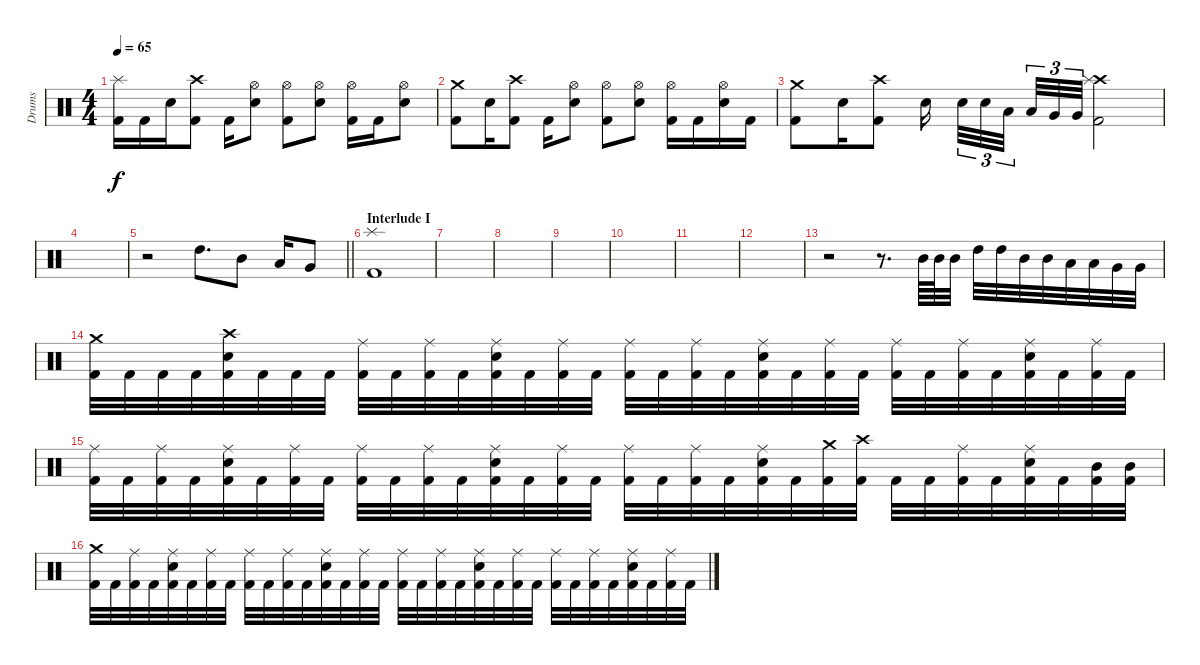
\track ("Drums" "Drums") {instrument percussion}
\staff {score}
\articulation defaults
\ts (4 4)
\tempo 65
\clef neutral
\ks c
("Splash (hit)" "Kick (hit) 2").16{dy f} "Kick (hit) 2".16 "Electric Snare (hit)".16 ("Crash high (hit)" "Kick (hit) 2").8 "Kick (hit) 2".16 ("Hi-Hat (open)" "Electric Snare (hit)").8 ("Hi-Hat (open)" "Kick (hit) 2").8 ("Hi-Hat (open)" "Electric Snare (hit)").8 ("Hi-Hat (open)" "Kick (hit) 2").16 "Kick (hit) 2".16 ("Hi-Hat (open)" "Electric Snare (hit)").8 |
("Crash medium (hit)" "Kick (hit) 2").8 "Electric Snare (hit)".16 ("Crash high (hit)" "Kick (hit) 2").8 "Kick (hit) 2".16 ("Hi-Hat (open)" "Electric Snare (hit)").8 ("Hi-Hat (open)" "Kick (hit) 2").8 ("Hi-Hat (open)" "Electric Snare (hit)").8 ("Hi-Hat (open)" "Kick (hit) 2").16 "Kick (hit) 2".16 ("Hi-Hat (open)" "Electric Snare (hit)").16 "Kick (hit) 2".16 |
("Crash medium (hit)" "Kick (hit) 2").8 "Electric Snare (hit)".16 ("Crash high (hit)" "Kick (hit) 2").8 "Electric Snare (hit)".16 "Electric Snare (hit)".32{tu (3 2)} "Electric Snare (hit)".32{tu (3 2)} "Low Tom (hit)".32{tu (3 2)} "Low Tom (hit)".32{tu (3 2)} "Very Low Tom (hit)".32{tu (3 2)} "Very Low Tom (hit)".32{tu (3 2)} ("Crash high (hit)" "Splash (hit)" "Kick (hit) 2").2 |
|
\barLineRight lightlight
r.2 "High Tom (hit)".8{d} "Mid Tom (hit)".8 "Low Tom (hit)".16 "Very Low Tom (hit)".8 |
\section ("" "Interlude I")
("Splash (hit)" "Kick (hit) 2").1 |
|
|
|
|
|
|
r.2 r.8{d} "Mid Tom (hit)".64 "Mid Tom (hit)".64 "Mid Tom (hit)".32 "High Tom (hit)".32 "High Tom (hit)".32 "Mid Tom (hit)".32 "Mid Tom (hit)".32 "Low Tom (hit)".32 "Low Tom (hit)".32 "Very Low Tom (hit)".32 "Very Low Tom (hit)".32 |
("Crash medium (hit)" "Kick (hit) 2").32 "Kick (hit) 2".32 "Kick (hit) 2".32 "Kick (hit) 2".32 ("Crash high (hit)" "Electric Snare (hit)" "Kick (hit) 2").32 "Kick (hit) 2".32 "Kick (hit) 2".32 "Kick (hit) 2".32 ("Ride (middle)" "Kick (hit) 2").32 "Kick (hit) 2".32 ("Ride (middle)" "Kick (hit) 2").32 "Kick (hit) 2".32 ("Ride (middle)" "Electric Snare (hit)" "Kick (hit) 2").32 "Kick (hit) 2".32 ("Ride (middle)" "Kick (hit) 2").32 "Kick (hit) 2".32 ("Ride (middle)" "Kick (hit) 2").32 "Kick (hit) 2".32 ("Ride (middle)" "Kick (hit) 2").32 "Kick (hit) 2".32 ("Ride (middle)" "Electric Snare (hit)" "Kick (hit) 2").32 "Kick (hit) 2".32 ("Ride (middle)" "Kick (hit) 2").32 "Kick (hit) 2".32 ("Ride (middle)" "Kick (hit) 2").32 "Kick (hit) 2".32 ("Ride (middle)" "Kick (hit) 2").32 "Kick (hit) 2".32 ("Ride (middle)" "Electric Snare (hit)" "Kick (hit) 2").32 "Kick (hit) 2".32 ("Ride (middle)" "Kick (hit) 2").32 "Kick (hit) 2".32 |
("Ride (middle)" "Kick (hit) 2").32 "Kick (hit) 2".32 ("Ride (middle)" "Kick (hit) 2").32 "Kick (hit) 2".32 ("Ride (middle)" "Electric Snare (hit)" "Kick (hit) 2").32 "Kick (hit) 2".32 ("Ride (middle)" "Kick (hit) 2").32 "Kick (hit) 2".32 ("Ride (middle)" "Kick (hit) 2").32 "Kick (hit) 2".32 ("Ride (middle)" "Kick (hit) 2").32 "Kick (hit) 2".32 ("Ride (middle)" "Electric Snare (hit)" "Kick (hit) 2").32 "Kick (hit) 2".32 ("Ride (middle)" "Kick (hit) 2").32 "Kick (hit) 2".32 ("Ride (middle)" "Kick (hit) 2").32 "Kick (hit) 2".32 ("Ride (middle)" "Kick (hit) 2").32 "Kick (hit) 2".32 ("Ride (middle)" "Electric Snare (hit)" "Kick (hit) 2").32 "Kick (hit) 2".32 ("Crash medium (hit)" "Kick (hit) 2").32 ("Crash high (hit)" "Kick (hit) 2").32 "Kick (hit) 2".32 "Kick (hit) 2".32 ("Ride (middle)" "Kick (hit) 2").32 "Kick (hit) 2".32 ("Ride (middle)" "Electric Snare (hit)" "Kick (hit) 2").32 "Kick (hit) 2".32 ("Mid Tom (hit)" "Kick (hit) 2").32 ("Mid Tom (hit)" "Kick (hit) 2").32 |
("Crash medium (hit)" "Kick (hit) 2").32 "Kick (hit) 2".32 ("Ride (middle)" "Kick (hit) 2").32 "Kick (hit) 2".32 ("Ride (middle)" "Electric Snare (hit)" "Kick (hit) 2").32 "Kick (hit) 2".32 ("Ride (middle)" "Kick (hit) 2").32 "Kick (hit) 2".32 ("Ride (middle)" "Kick (hit) 2").32 "Kick (hit) 2".32 ("Ride (middle)" "Kick (hit) 2").32 "Kick (hit) 2".32 ("Ride (middle)" "Electric Snare (hit)" "Kick (hit) 2").32 "Kick (hit) 2".32 ("Ride (middle)" "Kick (hit) 2").32 "Kick (hit) 2".32 ("Ride (middle)" "Kick (hit) 2").32 "Kick (hit) 2".32 ("Ride (middle)" "Kick (hit) 2").32 "Kick (hit) 2".32 ("Ride (middle)" "Electric Snare (hit)" "Kick (hit) 2").32 "Kick (hit) 2".32 ("Ride (middle)" "Kick (hit) 2").32 "Kick (hit) 2".32 ("Ride (middle)" "Kick (hit) 2").32 "Kick (hit) 2".32 ("Ride (middle)" "Kick (hit) 2").32 "Kick (hit) 2".32 ("Ride (middle)" "Electric Snare (hit)" "Kick (hit) 2").32 "Kick (hit) 2".32 ("Ride (middle)" "Kick (hit) 2").32 "Kick (hit) 2".32
